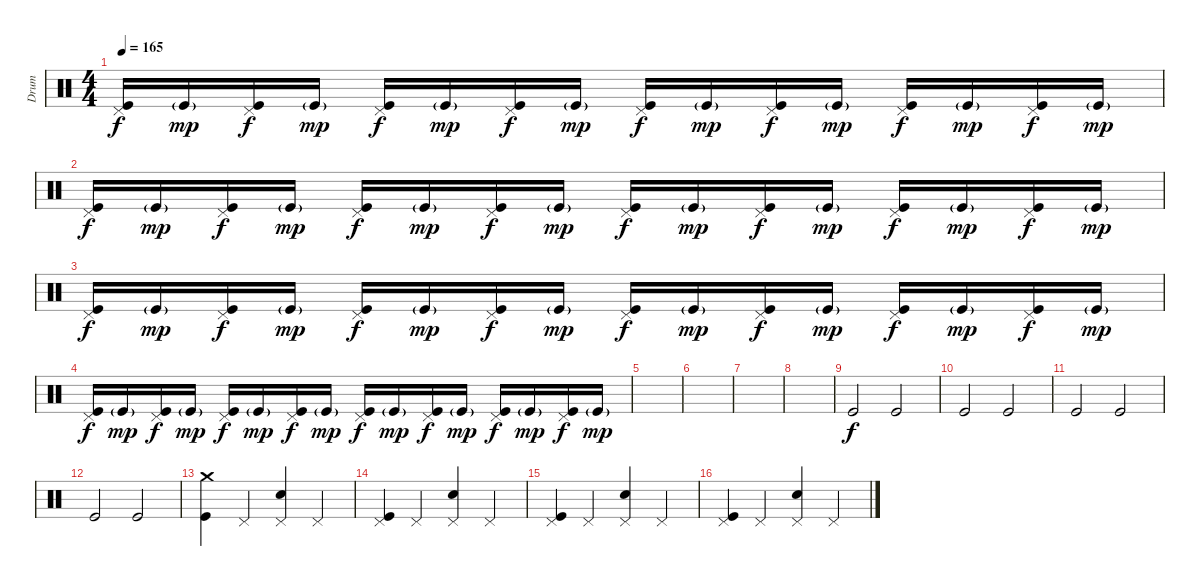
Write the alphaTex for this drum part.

\track ("Drum" "Drum") {instrument percussion}
\staff {score}
\articulation defaults
\ts (4 4)
\tempo 165
\clef neutral
\ks c
("Pedal Hi-Hat (hit)" "Kick (hit)").16{dy f} "Kick (hit)"{g}.16{dy mp} ("Pedal Hi-Hat (hit)" "Kick (hit)").16{dy f} "Kick (hit)"{g}.16{dy mp} ("Pedal Hi-Hat (hit)" "Kick (hit)").16{dy f} "Kick (hit)"{g}.16{dy mp} ("Pedal Hi-Hat (hit)" "Kick (hit)").16{dy f} "Kick (hit)"{g}.16{dy mp} ("Pedal Hi-Hat (hit)" "Kick (hit)").16{dy f} "Kick (hit)"{g}.16{dy mp} ("Pedal Hi-Hat (hit)" "Kick (hit)").16{dy f} "Kick (hit)"{g}.16{dy mp} ("Pedal Hi-Hat (hit)" "Kick (hit)").16{dy f} "Kick (hit)"{g}.16{dy mp} ("Pedal Hi-Hat (hit)" "Kick (hit)").16{dy f} "Kick (hit)"{g}.16{dy mp} |
("Pedal Hi-Hat (hit)" "Kick (hit)").16{dy f} "Kick (hit)"{g}.16{dy mp} ("Pedal Hi-Hat (hit)" "Kick (hit)").16{dy f} "Kick (hit)"{g}.16{dy mp} ("Pedal Hi-Hat (hit)" "Kick (hit)").16{dy f} "Kick (hit)"{g}.16{dy mp} ("Pedal Hi-Hat (hit)" "Kick (hit)").16{dy f} "Kick (hit)"{g}.16{dy mp} ("Pedal Hi-Hat (hit)" "Kick (hit)").16{dy f} "Kick (hit)"{g}.16{dy mp} ("Pedal Hi-Hat (hit)" "Kick (hit)").16{dy f} "Kick (hit)"{g}.16{dy mp} ("Pedal Hi-Hat (hit)" "Kick (hit)").16{dy f} "Kick (hit)"{g}.16{dy mp} ("Pedal Hi-Hat (hit)" "Kick (hit)").16{dy f} "Kick (hit)"{g}.16{dy mp} |
("Pedal Hi-Hat (hit)" "Kick (hit)").16{dy f} "Kick (hit)"{g}.16{dy mp} ("Pedal Hi-Hat (hit)" "Kick (hit)").16{dy f} "Kick (hit)"{g}.16{dy mp} ("Pedal Hi-Hat (hit)" "Kick (hit)").16{dy f} "Kick (hit)"{g}.16{dy mp} ("Pedal Hi-Hat (hit)" "Kick (hit)").16{dy f} "Kick (hit)"{g}.16{dy mp} ("Pedal Hi-Hat (hit)" "Kick (hit)").16{dy f} "Kick (hit)"{g}.16{dy mp} ("Pedal Hi-Hat (hit)" "Kick (hit)").16{dy f} "Kick (hit)"{g}.16{dy mp} ("Pedal Hi-Hat (hit)" "Kick (hit)").16{dy f} "Kick (hit)"{g}.16{dy mp} ("Pedal Hi-Hat (hit)" "Kick (hit)").16{dy f} "Kick (hit)"{g}.16{dy mp} |
("Pedal Hi-Hat (hit)" "Kick (hit)").16{dy f} "Kick (hit)"{g}.16{dy mp} ("Pedal Hi-Hat (hit)" "Kick (hit)").16{dy f} "Kick (hit)"{g}.16{dy mp} ("Pedal Hi-Hat (hit)" "Kick (hit)").16{dy f} "Kick (hit)"{g}.16{dy mp} ("Pedal Hi-Hat (hit)" "Kick (hit)").16{dy f} "Kick (hit)"{g}.16{dy mp} ("Pedal Hi-Hat (hit)" "Kick (hit)").16{dy f} "Kick (hit)"{g}.16{dy mp} ("Pedal Hi-Hat (hit)" "Kick (hit)").16{dy f} "Kick (hit)"{g}.16{dy mp} ("Pedal Hi-Hat (hit)" "Kick (hit)").16{dy f} "Kick (hit)"{g}.16{dy mp} ("Pedal Hi-Hat (hit)" "Kick (hit)").16{dy f} "Kick (hit)"{g}.16{dy mp} |
|
|
|
|
"Kick (hit)".2{dy f} "Kick (hit)".2 |
"Kick (hit)".2 "Kick (hit)".2 |
"Kick (hit)".2 "Kick (hit)".2 |
"Kick (hit)".2 "Kick (hit)".2 |
("Crash medium (hit)" "Kick (hit)").4 "Pedal Hi-Hat (hit)".4 ("Pedal Hi-Hat (hit)" "Electric Snare (hit)").4 "Pedal Hi-Hat (hit)".4 |
("Pedal Hi-Hat (hit)" "Kick (hit)").4 "Pedal Hi-Hat (hit)".4 ("Pedal Hi-Hat (hit)" "Electric Snare (hit)").4 "Pedal Hi-Hat (hit)".4 |
("Pedal Hi-Hat (hit)" "Kick (hit)").4 "Pedal Hi-Hat (hit)".4 ("Pedal Hi-Hat (hit)" "Electric Snare (hit)").4 "Pedal Hi-Hat (hit)".4 |
("Pedal Hi-Hat (hit)" "Kick (hit)").4 "Pedal Hi-Hat (hit)".4 ("Pedal Hi-Hat (hit)" "Electric Snare (hit)").4 "Pedal Hi-Hat (hit)".4
